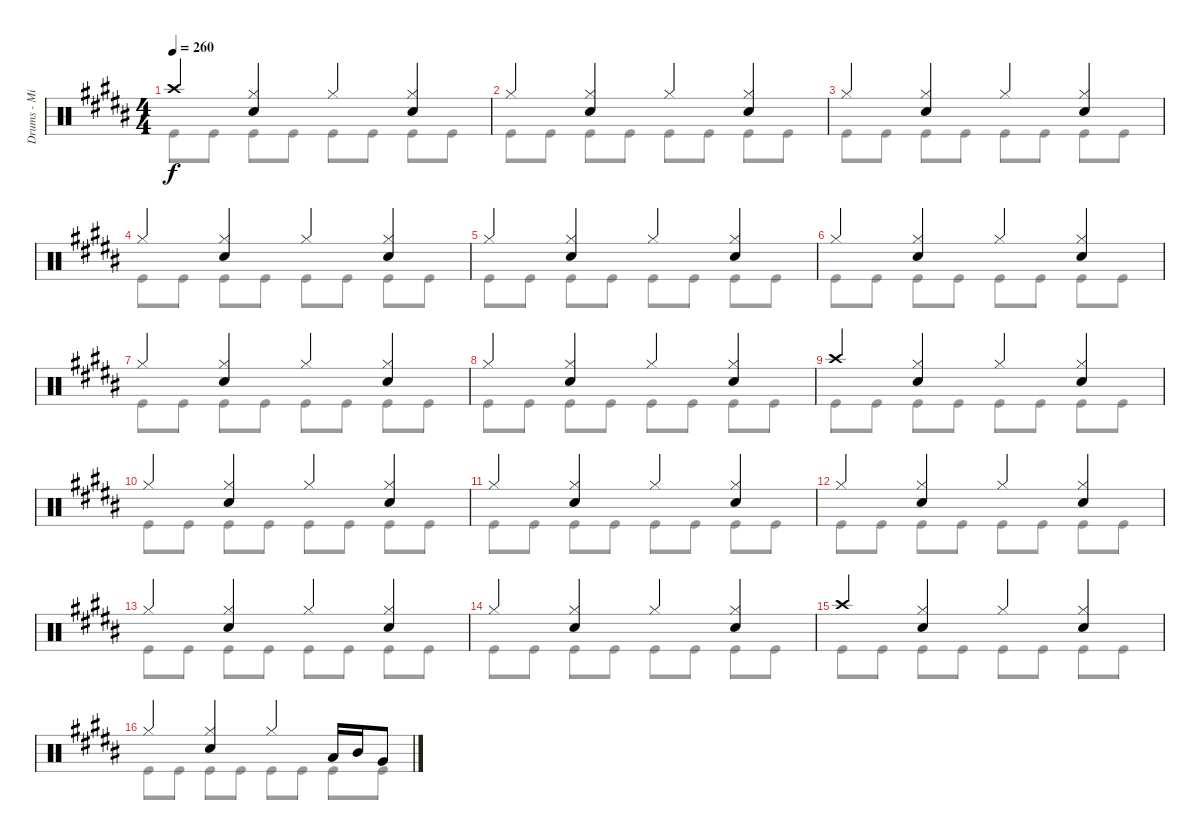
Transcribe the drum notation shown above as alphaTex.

\track ("Drums - Mike Portnoy" "Drums - Mi") {instrument percussion}
\staff {score}
\articulation defaults
\voice
\ts (4 4)
\tempo 260
\clef neutral
\ks b "Crash high (hit)".4{dy f}
("Hi-Hat (closed)" "Snare (hit) 2").4 "Hi-Hat (closed)".4 ("Hi-Hat (closed)" "Snare (hit) 2").4 |
"Hi-Hat (closed)".4 ("Hi-Hat (closed)" "Snare (hit) 2").4 "Hi-Hat (closed)".4 ("Hi-Hat (closed)" "Snare (hit) 2").4 |
"Hi-Hat (closed)".4 ("Hi-Hat (closed)" "Snare (hit) 2").4 "Hi-Hat (closed)".4 ("Hi-Hat (closed)" "Snare (hit) 2").4 |
"Hi-Hat (closed)".4 ("Hi-Hat (closed)" "Snare (hit) 2").4 "Hi-Hat (closed)".4 ("Hi-Hat (closed)" "Snare (hit) 2").4 |
"Hi-Hat (closed)".4 ("Hi-Hat (closed)" "Snare (hit) 2").4 "Hi-Hat (closed)".4 ("Hi-Hat (closed)" "Snare (hit) 2").4 |
"Hi-Hat (closed)".4 ("Hi-Hat (closed)" "Snare (hit) 2").4 "Hi-Hat (closed)".4 ("Hi-Hat (closed)" "Snare (hit) 2").4 |
"Hi-Hat (closed)".4 ("Hi-Hat (closed)" "Snare (hit) 2").4 "Hi-Hat (closed)".4 ("Hi-Hat (closed)" "Snare (hit) 2").4 |
"Hi-Hat (closed)".4 ("Hi-Hat (closed)" "Snare (hit) 2").4 "Hi-Hat (closed)".4 ("Hi-Hat (closed)" "Snare (hit) 2").4 |
"Crash high (hit)".4 ("Hi-Hat (closed)" "Snare (hit) 2").4 "Hi-Hat (closed)".4 ("Hi-Hat (closed)" "Snare (hit) 2").4 |
"Hi-Hat (closed)".4 ("Hi-Hat (closed)" "Snare (hit) 2").4 "Hi-Hat (closed)".4 ("Hi-Hat (closed)" "Snare (hit) 2").4 |
"Hi-Hat (closed)".4 ("Hi-Hat (closed)" "Snare (hit) 2").4 "Hi-Hat (closed)".4 ("Hi-Hat (closed)" "Snare (hit) 2").4 |
"Hi-Hat (closed)".4 ("Hi-Hat (closed)" "Snare (hit) 2").4 "Hi-Hat (closed)".4 ("Hi-Hat (closed)" "Snare (hit) 2").4 |
"Hi-Hat (closed)".4 ("Hi-Hat (closed)" "Snare (hit) 2").4 "Hi-Hat (closed)".4 ("Hi-Hat (closed)" "Snare (hit) 2").4 |
"Hi-Hat (closed)".4 ("Hi-Hat (closed)" "Snare (hit) 2").4 "Hi-Hat (closed)".4 ("Hi-Hat (closed)" "Snare (hit) 2").4 |
"Crash high (hit)".4 ("Hi-Hat (closed)" "Snare (hit) 2").4 "Hi-Hat (closed)".4 ("Hi-Hat (closed)" "Snare (hit) 2").4 |
"Hi-Hat (closed)".4 ("Hi-Hat (closed)" "Snare (hit) 2").4 "Hi-Hat (closed)".4 "Low Tom (hit)".16 "Mid Tom (hit)".16 "Very Low Tom (hit)".8
\voice
\clef neutral
\ottava regular
\simile none
\ks b "Kick (hit)".8{dy f} "Kick (hit)".8 "Kick (hit)".8 "Kick (hit)".8 "Kick (hit)".8 "Kick (hit)".8 "Kick (hit)".8 "Kick (hit)".8
|
"Kick (hit)".8 "Kick (hit)".8 "Kick (hit)".8 "Kick (hit)".8 "Kick (hit)".8 "Kick (hit)".8 "Kick (hit)".8 "Kick (hit)".8 |
"Kick (hit)".8 "Kick (hit)".8 "Kick (hit)".8 "Kick (hit)".8 "Kick (hit)".8 "Kick (hit)".8 "Kick (hit)".8 "Kick (hit)".8 |
"Kick (hit)".8 "Kick (hit)".8 "Kick (hit)".8 "Kick (hit)".8 "Kick (hit)".8 "Kick (hit)".8 "Kick (hit)".8 "Kick (hit)".8 |
"Kick (hit)".8 "Kick (hit)".8 "Kick (hit)".8 "Kick (hit)".8 "Kick (hit)".8 "Kick (hit)".8 "Kick (hit)".8 "Kick (hit)".8 |
"Kick (hit)".8 "Kick (hit)".8 "Kick (hit)".8 "Kick (hit)".8 "Kick (hit)".8 "Kick (hit)".8 "Kick (hit)".8 "Kick (hit)".8 |
"Kick (hit)".8 "Kick (hit)".8 "Kick (hit)".8 "Kick (hit)".8 "Kick (hit)".8 "Kick (hit)".8 "Kick (hit)".8 "Kick (hit)".8 |
"Kick (hit)".8 "Kick (hit)".8 "Kick (hit)".8 "Kick (hit)".8 "Kick (hit)".8 "Kick (hit)".8 "Kick (hit)".8 "Kick (hit)".8 |
"Kick (hit)".8 "Kick (hit)".8 "Kick (hit)".8 "Kick (hit)".8 "Kick (hit)".8 "Kick (hit)".8 "Kick (hit)".8 "Kick (hit)".8 |
"Kick (hit)".8 "Kick (hit)".8 "Kick (hit)".8 "Kick (hit)".8 "Kick (hit)".8 "Kick (hit)".8 "Kick (hit)".8 "Kick (hit)".8 |
"Kick (hit)".8 "Kick (hit)".8 "Kick (hit)".8 "Kick (hit)".8 "Kick (hit)".8 "Kick (hit)".8 "Kick (hit)".8 "Kick (hit)".8 |
"Kick (hit)".8 "Kick (hit)".8 "Kick (hit)".8 "Kick (hit)".8 "Kick (hit)".8 "Kick (hit)".8 "Kick (hit)".8 "Kick (hit)".8 |
"Kick (hit)".8 "Kick (hit)".8 "Kick (hit)".8 "Kick (hit)".8 "Kick (hit)".8 "Kick (hit)".8 "Kick (hit)".8 "Kick (hit)".8 |
"Kick (hit)".8 "Kick (hit)".8 "Kick (hit)".8 "Kick (hit)".8 "Kick (hit)".8 "Kick (hit)".8 "Kick (hit)".8 "Kick (hit)".8 |
"Kick (hit)".8 "Kick (hit)".8 "Kick (hit)".8 "Kick (hit)".8 "Kick (hit)".8 "Kick (hit)".8 "Kick (hit)".8 "Kick (hit)".8 |
"Kick (hit)".8 "Kick (hit)".8 "Kick (hit)".8 "Kick (hit)".8 "Kick (hit)".8 "Kick (hit)".8 "Kick (hit)".8 "Kick (hit)".8
